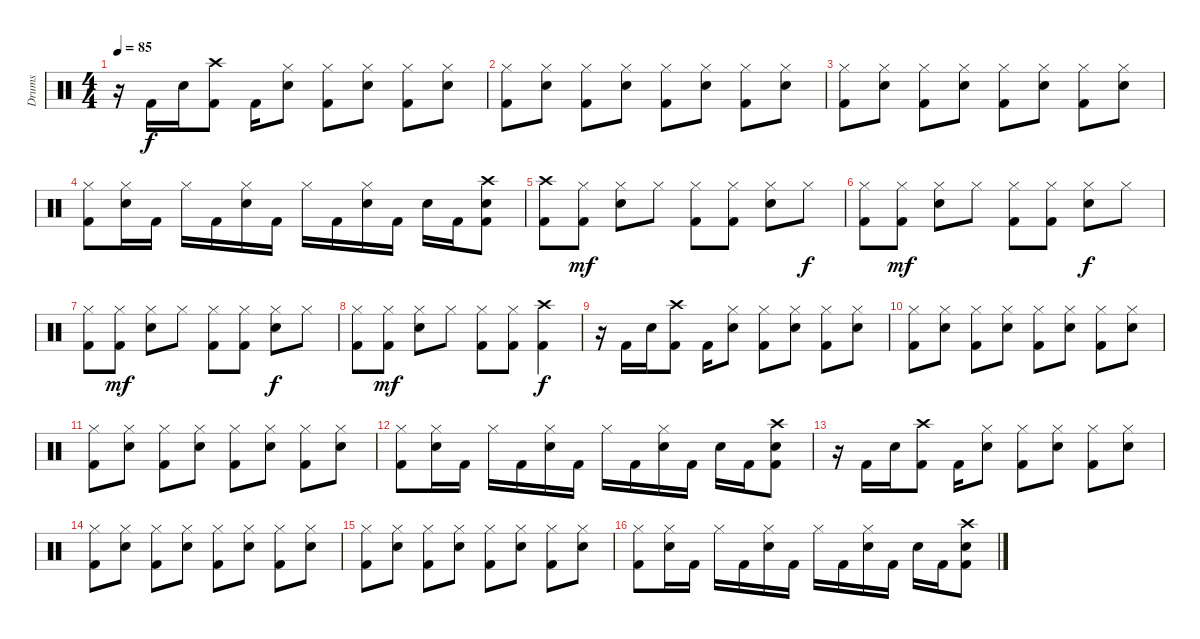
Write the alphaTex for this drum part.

\track ("Drums" "Drums") {instrument percussion}
\staff {score}
\articulation defaults
\ts (4 4)
\tempo 85
\clef neutral
\ks c
r.16{dy f} "Kick (hit) 2".16 "Electric Snare (hit)".16 ("Crash high (hit)" "Kick (hit) 2").8 "Kick (hit) 2".16 ("Hi-Hat (closed)" "Electric Snare (hit)").8 ("Hi-Hat (closed)" "Kick (hit) 2").8 ("Hi-Hat (closed)" "Electric Snare (hit)").8 ("Hi-Hat (closed)" "Kick (hit) 2").8 ("Hi-Hat (closed)" "Electric Snare (hit)").8 |
("Hi-Hat (closed)" "Kick (hit) 2").8 ("Hi-Hat (closed)" "Electric Snare (hit)").8 ("Hi-Hat (closed)" "Kick (hit) 2").8 ("Hi-Hat (closed)" "Electric Snare (hit)").8 ("Hi-Hat (closed)" "Kick (hit) 2").8 ("Hi-Hat (closed)" "Electric Snare (hit)").8 ("Hi-Hat (closed)" "Kick (hit) 2").8 ("Hi-Hat (closed)" "Electric Snare (hit)").8 |
("Hi-Hat (closed)" "Kick (hit) 2").8 ("Hi-Hat (closed)" "Electric Snare (hit)").8 ("Hi-Hat (closed)" "Kick (hit) 2").8 ("Hi-Hat (closed)" "Electric Snare (hit)").8 ("Hi-Hat (closed)" "Kick (hit) 2").8 ("Hi-Hat (closed)" "Electric Snare (hit)").8 ("Hi-Hat (closed)" "Kick (hit) 2").8 ("Hi-Hat (closed)" "Electric Snare (hit)").8 |
("Hi-Hat (closed)" "Kick (hit) 2").8 ("Hi-Hat (closed)" "Electric Snare (hit)").16 "Kick (hit) 2".16 "Hi-Hat (closed)".16 "Kick (hit) 2".16 ("Hi-Hat (closed)" "Electric Snare (hit)").16 "Kick (hit) 2".16 "Hi-Hat (closed)".16 "Kick (hit) 2".16 ("Hi-Hat (closed)" "Electric Snare (hit)").16 "Kick (hit) 2".16 "Electric Snare (hit)".16 "Kick (hit) 2".16 ("Crash high (hit)" "Electric Snare (hit)" "Kick (hit) 2").8 |
("Crash high (hit)" "Kick (hit) 2").8 ("Hi-Hat (closed)" "Kick (hit) 2").8{dy mf} ("Hi-Hat (closed)" "Electric Snare (hit)").8 "Hi-Hat (closed)".8 ("Hi-Hat (closed)" "Kick (hit) 2").8 ("Hi-Hat (closed)" "Kick (hit) 2").8 ("Hi-Hat (closed)" "Electric Snare (hit)").8 "Hi-Hat (closed)".8{dy f} |
("Hi-Hat (closed)" "Kick (hit) 2").8 ("Hi-Hat (closed)" "Kick (hit) 2").8{dy mf} ("Hi-Hat (closed)" "Electric Snare (hit)").8 "Hi-Hat (closed)".8 ("Hi-Hat (closed)" "Kick (hit) 2").8 ("Hi-Hat (closed)" "Kick (hit) 2").8 ("Hi-Hat (closed)" "Electric Snare (hit)").8{dy f} "Hi-Hat (closed)".8 |
("Hi-Hat (closed)" "Kick (hit) 2").8 ("Hi-Hat (closed)" "Kick (hit) 2").8{dy mf} ("Hi-Hat (closed)" "Electric Snare (hit)").8 "Hi-Hat (closed)".8 ("Hi-Hat (closed)" "Kick (hit) 2").8 ("Hi-Hat (closed)" "Kick (hit) 2").8 ("Hi-Hat (closed)" "Electric Snare (hit)").8{dy f} "Hi-Hat (closed)".8 |
("Hi-Hat (closed)" "Kick (hit) 2").8 ("Hi-Hat (closed)" "Kick (hit) 2").8{dy mf} ("Hi-Hat (closed)" "Electric Snare (hit)").8 "Hi-Hat (closed)".8 ("Hi-Hat (closed)" "Kick (hit) 2").8 ("Hi-Hat (closed)" "Kick (hit) 2").8 ("Crash high (hit)" "Kick (hit) 2").4{dy f} |
r.16 "Kick (hit) 2".16 "Electric Snare (hit)".16 ("Crash high (hit)" "Kick (hit) 2").8 "Kick (hit) 2".16 ("Hi-Hat (closed)" "Electric Snare (hit)").8 ("Hi-Hat (closed)" "Kick (hit) 2").8 ("Hi-Hat (closed)" "Electric Snare (hit)").8 ("Hi-Hat (closed)" "Kick (hit) 2").8 ("Hi-Hat (closed)" "Electric Snare (hit)").8 |
("Hi-Hat (closed)" "Kick (hit) 2").8 ("Hi-Hat (closed)" "Electric Snare (hit)").8 ("Hi-Hat (closed)" "Kick (hit) 2").8 ("Hi-Hat (closed)" "Electric Snare (hit)").8 ("Hi-Hat (closed)" "Kick (hit) 2").8 ("Hi-Hat (closed)" "Electric Snare (hit)").8 ("Hi-Hat (closed)" "Kick (hit) 2").8 ("Hi-Hat (closed)" "Electric Snare (hit)").8 |
("Hi-Hat (closed)" "Kick (hit) 2").8 ("Hi-Hat (closed)" "Electric Snare (hit)").8 ("Hi-Hat (closed)" "Kick (hit) 2").8 ("Hi-Hat (closed)" "Electric Snare (hit)").8 ("Hi-Hat (closed)" "Kick (hit) 2").8 ("Hi-Hat (closed)" "Electric Snare (hit)").8 ("Hi-Hat (closed)" "Kick (hit) 2").8 ("Hi-Hat (closed)" "Electric Snare (hit)").8 |
("Hi-Hat (closed)" "Kick (hit) 2").8 ("Hi-Hat (closed)" "Electric Snare (hit)").16 "Kick (hit) 2".16 "Hi-Hat (closed)".16 "Kick (hit) 2".16 ("Hi-Hat (closed)" "Electric Snare (hit)").16 "Kick (hit) 2".16 "Hi-Hat (closed)".16 "Kick (hit) 2".16 ("Hi-Hat (closed)" "Electric Snare (hit)").16 "Kick (hit) 2".16 "Electric Snare (hit)".16 "Kick (hit) 2".16 ("Crash high (hit)" "Electric Snare (hit)" "Kick (hit) 2").8 |
r.16 "Kick (hit) 2".16 "Electric Snare (hit)".16 ("Crash high (hit)" "Kick (hit) 2").8 "Kick (hit) 2".16 ("Hi-Hat (closed)" "Electric Snare (hit)").8 ("Hi-Hat (closed)" "Kick (hit) 2").8 ("Hi-Hat (closed)" "Electric Snare (hit)").8 ("Hi-Hat (closed)" "Kick (hit) 2").8 ("Hi-Hat (closed)" "Electric Snare (hit)").8 |
("Hi-Hat (closed)" "Kick (hit) 2").8 ("Hi-Hat (closed)" "Electric Snare (hit)").8 ("Hi-Hat (closed)" "Kick (hit) 2").8 ("Hi-Hat (closed)" "Electric Snare (hit)").8 ("Hi-Hat (closed)" "Kick (hit) 2").8 ("Hi-Hat (closed)" "Electric Snare (hit)").8 ("Hi-Hat (closed)" "Kick (hit) 2").8 ("Hi-Hat (closed)" "Electric Snare (hit)").8 |
("Hi-Hat (closed)" "Kick (hit) 2").8 ("Hi-Hat (closed)" "Electric Snare (hit)").8 ("Hi-Hat (closed)" "Kick (hit) 2").8 ("Hi-Hat (closed)" "Electric Snare (hit)").8 ("Hi-Hat (closed)" "Kick (hit) 2").8 ("Hi-Hat (closed)" "Electric Snare (hit)").8 ("Hi-Hat (closed)" "Kick (hit) 2").8 ("Hi-Hat (closed)" "Electric Snare (hit)").8 |
("Hi-Hat (closed)" "Kick (hit) 2").8 ("Hi-Hat (closed)" "Electric Snare (hit)").16 "Kick (hit) 2".16 "Hi-Hat (closed)".16 "Kick (hit) 2".16 ("Hi-Hat (closed)" "Electric Snare (hit)").16 "Kick (hit) 2".16 "Hi-Hat (closed)".16 "Kick (hit) 2".16 ("Hi-Hat (closed)" "Electric Snare (hit)").16 "Kick (hit) 2".16 "Electric Snare (hit)".16 "Kick (hit) 2".16 ("Crash high (hit)" "Electric Snare (hit)" "Kick (hit) 2").8
